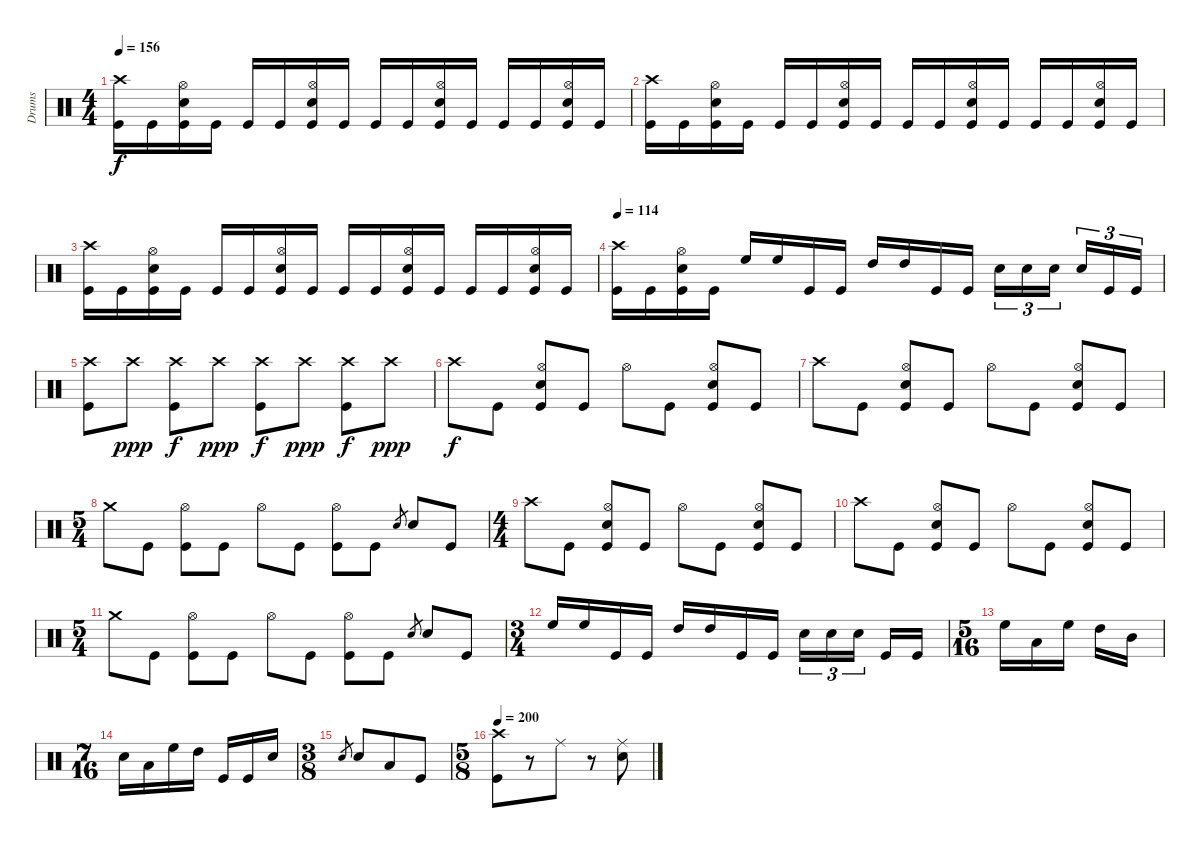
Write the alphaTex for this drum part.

\track ("Drums" "Drums") {instrument percussion}
\staff {score}
\articulation defaults
\ts (4 4)
\tempo 156
\clef neutral
\ks c
("Crash high (hit)" "Kick (hit)").16{dy f} "Kick (hit)".16 ("Hi-Hat (open)" "Electric Snare (hit)" "Kick (hit)").16 "Kick (hit)".16 "Kick (hit)".16 "Kick (hit)".16 ("Hi-Hat (open)" "Electric Snare (hit)" "Kick (hit)").16 "Kick (hit)".16 "Kick (hit)".16 "Kick (hit)".16 ("Hi-Hat (open)" "Electric Snare (hit)" "Kick (hit)").16 "Kick (hit)".16 "Kick (hit)".16 "Kick (hit)".16 ("Hi-Hat (open)" "Electric Snare (hit)" "Kick (hit)").16 "Kick (hit)".16 |
("Crash high (hit)" "Kick (hit)").16 "Kick (hit)".16 ("Hi-Hat (open)" "Electric Snare (hit)" "Kick (hit)").16 "Kick (hit)".16 "Kick (hit)".16 "Kick (hit)".16 ("Hi-Hat (open)" "Electric Snare (hit)" "Kick (hit)").16 "Kick (hit)".16 "Kick (hit)".16 "Kick (hit)".16 ("Hi-Hat (open)" "Electric Snare (hit)" "Kick (hit)").16 "Kick (hit)".16 "Kick (hit)".16 "Kick (hit)".16 ("Hi-Hat (open)" "Electric Snare (hit)" "Kick (hit)").16 "Kick (hit)".16 |
("Crash high (hit)" "Kick (hit)").16 "Kick (hit)".16 ("Hi-Hat (open)" "Electric Snare (hit)" "Kick (hit)").16 "Kick (hit)".16 "Kick (hit)".16 "Kick (hit)".16 ("Hi-Hat (open)" "Electric Snare (hit)" "Kick (hit)").16 "Kick (hit)".16 "Kick (hit)".16 "Kick (hit)".16 ("Hi-Hat (open)" "Electric Snare (hit)" "Kick (hit)").16 "Kick (hit)".16 "Kick (hit)".16 "Kick (hit)".16 ("Hi-Hat (open)" "Electric Snare (hit)" "Kick (hit)").16 "Kick (hit)".16 |
\tempo 114
("Crash high (hit)" "Kick (hit)").16 "Kick (hit)".16 ("Hi-Hat (open)" "Electric Snare (hit)" "Kick (hit)").16 "Kick (hit)".16 "High Floor Tom (hit)".16 "High Floor Tom (hit)".16 "Kick (hit)".16 "Kick (hit)".16 "High Tom (hit)".16 "High Tom (hit)".16 "Kick (hit)".16 "Kick (hit)".16 "Electric Snare (hit)".16{tu (3 2)} "Electric Snare (hit)".16{tu (3 2)} "Electric Snare (hit)".16{tu (3 2) beam splitsecondary} "Electric Snare (hit)".16{tu (3 2)} "Kick (hit)".16{tu (3 2)} "Kick (hit)".16{tu (3 2)} |
("Crash high (hit)" "Kick (hit)").8 "Crash high (hit)".8{dy ppp} ("Crash high (hit)" "Kick (hit)").8{dy f} "Crash high (hit)".8{dy ppp} ("Crash high (hit)" "Kick (hit)").8{dy f} "Crash high (hit)".8{dy ppp} ("Crash high (hit)" "Kick (hit)").8{dy f} "Crash high (hit)".8{dy ppp} |
"Crash high (hit)".8{dy f} "Kick (hit)".8 ("Hi-Hat (open)" "Electric Snare (hit)" "Kick (hit)").8 "Kick (hit)".8 "Hi-Hat (open)".8 "Kick (hit)".8 ("Hi-Hat (open)" "Electric Snare (hit)" "Kick (hit)").8 "Kick (hit)".8 |
"Crash high (hit)".8 "Kick (hit)".8 ("Hi-Hat (open)" "Electric Snare (hit)" "Kick (hit)").8 "Kick (hit)".8 "Hi-Hat (open)".8 "Kick (hit)".8 ("Hi-Hat (open)" "Electric Snare (hit)" "Kick (hit)").8 "Kick (hit)".8 |
\ts (5 4)
"Crash medium (hit)".8 "Kick (hit)".8 ("Hi-Hat (open)" "Kick (hit)").8 "Kick (hit)".8 "Hi-Hat (open)".8 "Kick (hit)".8 ("Hi-Hat (open)" "Kick (hit)").8 "Kick (hit)".8 "Electric Snare (hit)".8{gr} "Electric Snare (hit)".8 "Kick (hit)".8 |
\ts (4 4)
"Crash high (hit)".8 "Kick (hit)".8 ("Hi-Hat (open)" "Electric Snare (hit)" "Kick (hit)").8 "Kick (hit)".8 "Hi-Hat (open)".8 "Kick (hit)".8 ("Hi-Hat (open)" "Electric Snare (hit)" "Kick (hit)").8 "Kick (hit)".8 |
"Crash high (hit)".8 "Kick (hit)".8 ("Hi-Hat (open)" "Electric Snare (hit)" "Kick (hit)").8 "Kick (hit)".8 "Hi-Hat (open)".8 "Kick (hit)".8 ("Hi-Hat (open)" "Electric Snare (hit)" "Kick (hit)").8 "Kick (hit)".8 |
\ts (5 4)
"Crash medium (hit)".8 "Kick (hit)".8 ("Hi-Hat (open)" "Kick (hit)").8 "Kick (hit)".8 "Hi-Hat (open)".8 "Kick (hit)".8 ("Hi-Hat (open)" "Kick (hit)").8 "Kick (hit)".8 "Electric Snare (hit)".8{gr} "Electric Snare (hit)".8 "Kick (hit)".8 |
\ts (3 4)
"High Floor Tom (hit)".16 "High Floor Tom (hit)".16 "Kick (hit)".16 "Kick (hit)".16 "High Tom (hit)".16 "High Tom (hit)".16 "Kick (hit)".16 "Kick (hit)".16 "Electric Snare (hit)".16{tu (3 2)} "Electric Snare (hit)".16{tu (3 2)} "Electric Snare (hit)".16{tu (3 2) beam splitsecondary} "Kick (hit)".16 "Kick (hit)".16 |
\ts (5 16)
"High Floor Tom (hit)".16 "Low Floor Tom (hit)".16 "High Floor Tom (hit)".16 "High Tom (hit)".16 "Mid Tom (hit)".16 |
\ts (7 16)
"Electric Snare (hit)".16 "Low Floor Tom (hit)".16 "High Floor Tom (hit)".16 "High Tom (hit)".16 "Kick (hit)".16 "Kick (hit)".16 "Electric Snare (hit)".16 |
\ts (3 8)
"Electric Snare (hit)".8{gr} "Electric Snare (hit)".8 "Low Floor Tom (hit)".8 "Kick (hit)".8 |
\ts (5 8)
\tempo 200
("Crash high (hit)" "Kick (hit)").8 r.8 "Ride (middle)".8 r.8 ("Ride (middle)" "Electric Snare (hit)").8
